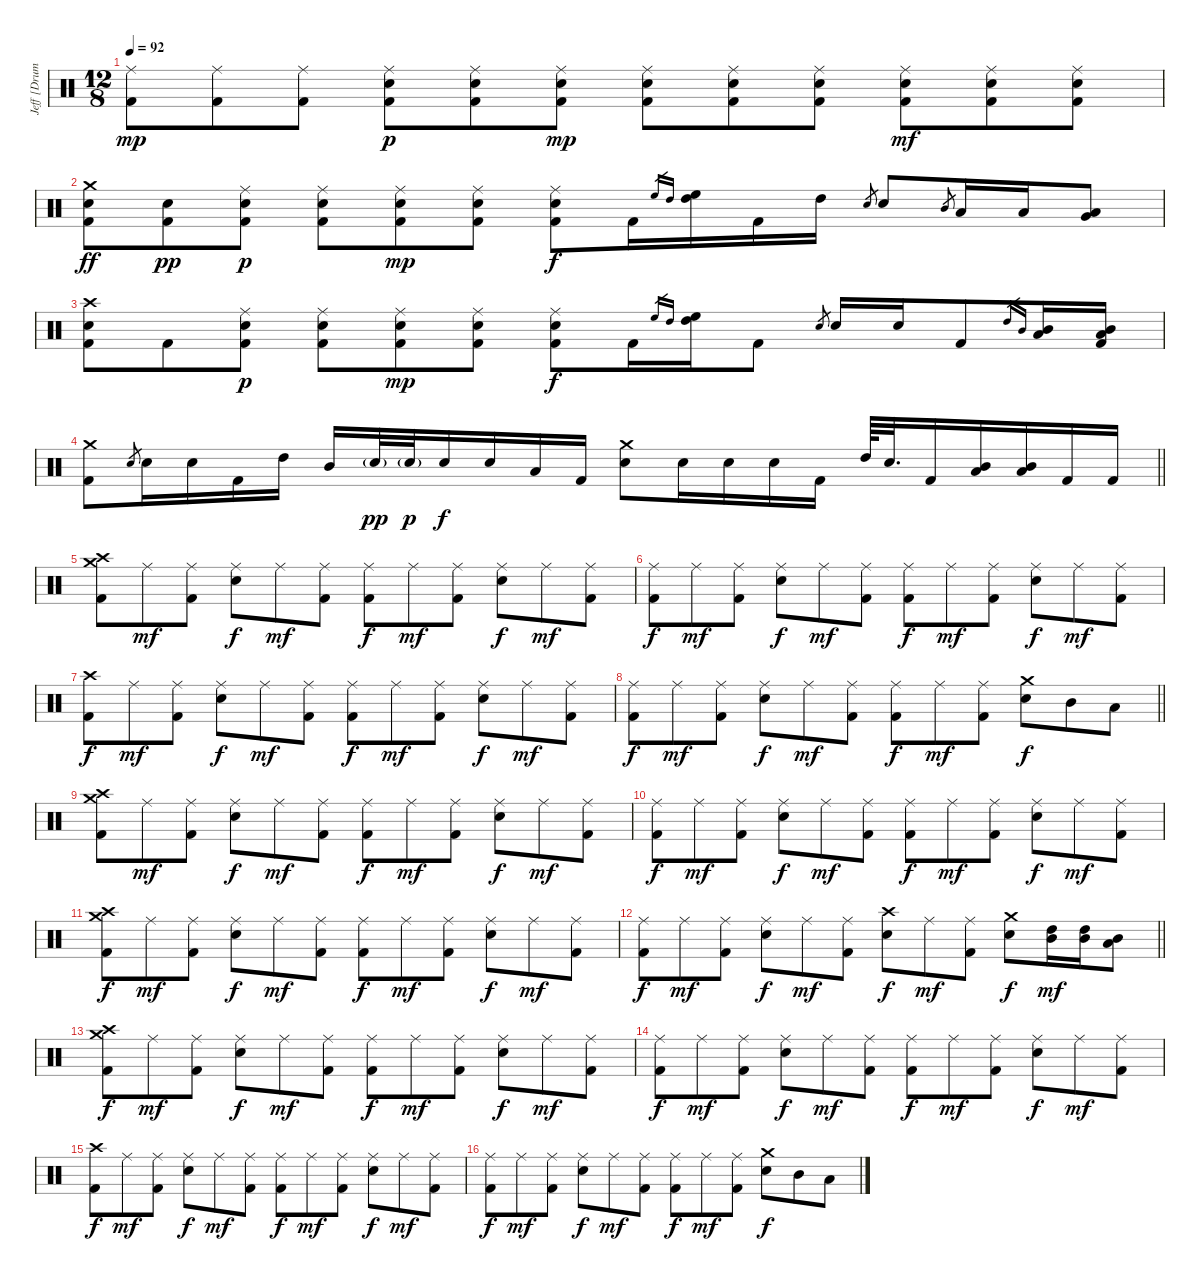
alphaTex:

\track ("Jeff [Drums]" "Jeff [Drum") {instrument percussion}
\staff {score}
\articulation defaults
\ts (12 8)
\tempo 92
\clef neutral
\ks c
("Ride (middle)" "Kick (hit) 2").8{dy mp} ("Ride (middle)" "Kick (hit) 2").8 ("Ride (middle)" "Kick (hit) 2").8 ("Ride (middle)" "Electric Snare (hit)" "Kick (hit) 2").8{dy p} ("Ride (middle)" "Electric Snare (hit)" "Kick (hit) 2").8 ("Ride (middle)" "Electric Snare (hit)" "Kick (hit) 2").8{dy mp} ("Ride (middle)" "Electric Snare (hit)" "Kick (hit) 2").8 ("Ride (middle)" "Electric Snare (hit)" "Kick (hit) 2").8 ("Ride (middle)" "Electric Snare (hit)" "Kick (hit) 2").8 ("Ride (middle)" "Electric Snare (hit)" "Kick (hit) 2").8{dy mf} ("Ride (middle)" "Electric Snare (hit)" "Kick (hit) 2").8 ("Ride (middle)" "Electric Snare (hit)" "Kick (hit) 2").8 |
("Crash medium (hit)" "Electric Snare (hit)" "Kick (hit) 2").8{dy ff} ("Electric Snare (hit)" "Kick (hit) 2").8{dy pp} ("Ride (middle)" "Electric Snare (hit)" "Kick (hit) 2").8{dy p} ("Ride (middle)" "Electric Snare (hit)" "Kick (hit) 2").8 ("Ride (middle)" "Electric Snare (hit)" "Kick (hit) 2").8{dy mp} ("Ride (middle)" "Electric Snare (hit)" "Kick (hit) 2").8 ("Ride (middle)" "Electric Snare (hit)" "Kick (hit) 2").8{dy f} "Kick (hit) 2".16 "High Floor Tom (hit)".16{gr} "High Tom (hit)".16{gr} ("High Floor Tom (hit)" "High Tom (hit)").16 "Kick (hit) 2".16 "High Tom (hit)".16 "Electric Snare (hit)".8{gr} "Electric Snare (hit)".8 "Mid Tom (hit)".8{gr} "Low Tom (hit)".16 "Low Tom (hit)".16 ("Very Low Tom (hit)" "Low Floor Tom (hit)").8 |
("Crash high (hit)" "Electric Snare (hit)" "Kick (hit) 2").8 "Kick (hit) 2".8 ("Ride (middle)" "Electric Snare (hit)" "Kick (hit) 2").8{dy p} ("Ride (middle)" "Electric Snare (hit)" "Kick (hit) 2").8 ("Ride (middle)" "Electric Snare (hit)" "Kick (hit) 2").8{dy mp} ("Ride (middle)" "Electric Snare (hit)" "Kick (hit) 2").8 ("Ride (middle)" "Electric Snare (hit)" "Kick (hit) 2").8{dy f} "Kick (hit) 2".16 "High Floor Tom (hit)".16{gr} "High Tom (hit)".16{gr} ("High Floor Tom (hit)" "High Tom (hit)").16 "Kick (hit) 2".8 "Electric Snare (hit)".8{gr} "Electric Snare (hit)".16 "Electric Snare (hit)".16 "Kick (hit) 2".8 "High Tom (hit)".16{gr} "Mid Tom (hit)".16{gr} ("Mid Tom (hit)" "Low Tom (hit)").16 ("Mid Tom (hit)" "Low Tom (hit)" "Kick (hit) 2").16 |
\barLineRight lightlight
("Crash medium (hit)" "Kick (hit) 2").8 "Electric Snare (hit)".8{gr} "Electric Snare (hit)".16 "Electric Snare (hit)".16 "Kick (hit) 2".16 "High Tom (hit)".16 "Mid Tom (hit)".16 "Electric Snare (hit)"{g}.32{dy pp} "Electric Snare (hit)"{g}.32{dy p} "Electric Snare (hit)".16{dy f} "Electric Snare (hit)".16 "Low Tom (hit)".16 "Kick (hit) 2".16 ("Crash medium (hit)" "Electric Snare (hit)").8 "Electric Snare (hit)".16 "Electric Snare (hit)".16 "Electric Snare (hit)".16 "Kick (hit) 2".16 "High Tom (hit)".64 "Electric Snare (hit)".32{d} "Kick (hit) 2".16 ("Mid Tom (hit)" "Low Tom (hit)").16 ("Mid Tom (hit)" "Low Tom (hit)").16 "Kick (hit) 2".16 "Kick (hit) 2".16 |
("Crash high (hit)" "Crash medium (hit)" "Kick (hit) 2").8 "Ride (middle)".8{dy mf} ("Ride (middle)" "Kick (hit) 2").8 ("Ride (middle)" "Electric Snare (hit)").8{dy f} "Ride (middle)".8{dy mf} ("Ride (middle)" "Kick (hit) 2").8 ("Ride (middle)" "Kick (hit) 2").8{dy f} "Ride (middle)".8{dy mf} ("Ride (middle)" "Kick (hit) 2").8 ("Ride (middle)" "Electric Snare (hit)").8{dy f} "Ride (middle)".8{dy mf} ("Ride (middle)" "Kick (hit) 2").8 |
("Ride (middle)" "Kick (hit) 2").8{dy f} "Ride (middle)".8{dy mf} ("Ride (middle)" "Kick (hit) 2").8 ("Ride (middle)" "Electric Snare (hit)").8{dy f} "Ride (middle)".8{dy mf} ("Ride (middle)" "Kick (hit) 2").8 ("Ride (middle)" "Kick (hit) 2").8{dy f} "Ride (middle)".8{dy mf} ("Ride (middle)" "Kick (hit) 2").8 ("Ride (middle)" "Electric Snare (hit)").8{dy f} "Ride (middle)".8{dy mf} ("Ride (middle)" "Kick (hit) 2").8 |
("Crash high (hit)" "Kick (hit) 2").8{dy f} "Ride (middle)".8{dy mf} ("Ride (middle)" "Kick (hit) 2").8 ("Ride (middle)" "Electric Snare (hit)").8{dy f} "Ride (middle)".8{dy mf} ("Ride (middle)" "Kick (hit) 2").8 ("Ride (middle)" "Kick (hit) 2").8{dy f} "Ride (middle)".8{dy mf} ("Ride (middle)" "Kick (hit) 2").8 ("Ride (middle)" "Electric Snare (hit)").8{dy f} "Ride (middle)".8{dy mf} ("Ride (middle)" "Kick (hit) 2").8 |
\barLineRight lightlight
("Ride (middle)" "Kick (hit) 2").8{dy f} "Ride (middle)".8{dy mf} ("Ride (middle)" "Kick (hit) 2").8 ("Ride (middle)" "Electric Snare (hit)").8{dy f} "Ride (middle)".8{dy mf} ("Ride (middle)" "Kick (hit) 2").8 ("Ride (middle)" "Kick (hit) 2").8{dy f} "Ride (middle)".8{dy mf} ("Ride (middle)" "Kick (hit) 2").8 ("Crash medium (hit)" "Electric Snare (hit)").8{dy f} "Mid Tom (hit)".8 "Low Tom (hit)".8 |
("Crash high (hit)" "Crash medium (hit)" "Kick (hit) 2").8 "Ride (middle)".8{dy mf} ("Ride (middle)" "Kick (hit) 2").8 ("Ride (middle)" "Electric Snare (hit)").8{dy f} "Ride (middle)".8{dy mf} ("Ride (middle)" "Kick (hit) 2").8 ("Ride (middle)" "Kick (hit) 2").8{dy f} "Ride (middle)".8{dy mf} ("Ride (middle)" "Kick (hit) 2").8 ("Ride (middle)" "Electric Snare (hit)").8{dy f} "Ride (middle)".8{dy mf} ("Ride (middle)" "Kick (hit) 2").8 |
("Ride (middle)" "Kick (hit) 2").8{dy f} "Ride (middle)".8{dy mf} ("Ride (middle)" "Kick (hit) 2").8 ("Ride (middle)" "Electric Snare (hit)").8{dy f} "Ride (middle)".8{dy mf} ("Ride (middle)" "Kick (hit) 2").8 ("Ride (middle)" "Kick (hit) 2").8{dy f} "Ride (middle)".8{dy mf} ("Ride (middle)" "Kick (hit) 2").8 ("Ride (middle)" "Electric Snare (hit)").8{dy f} "Ride (middle)".8{dy mf} ("Ride (middle)" "Kick (hit) 2").8 |
("Crash high (hit)" "Crash medium (hit)" "Kick (hit) 2").8{dy f} "Ride (middle)".8{dy mf} ("Ride (middle)" "Kick (hit) 2").8 ("Ride (middle)" "Electric Snare (hit)").8{dy f} "Ride (middle)".8{dy mf} ("Ride (middle)" "Kick (hit) 2").8 ("Ride (middle)" "Kick (hit) 2").8{dy f} "Ride (middle)".8{dy mf} ("Ride (middle)" "Kick (hit) 2").8 ("Ride (middle)" "Electric Snare (hit)").8{dy f} "Ride (middle)".8{dy mf} ("Ride (middle)" "Kick (hit) 2").8 |
\barLineRight lightlight
("Ride (middle)" "Kick (hit) 2").8{dy f} "Ride (middle)".8{dy mf} ("Ride (middle)" "Kick (hit) 2").8 ("Ride (middle)" "Electric Snare (hit)").8{dy f} "Ride (middle)".8{dy mf} ("Ride (middle)" "Kick (hit) 2").8 ("Crash high (hit)" "Electric Snare (hit)").8{dy f} "Ride (middle)".8{dy mf} ("Ride (middle)" "Kick (hit) 2").8 ("Crash medium (hit)" "Electric Snare (hit)").8{dy f} ("High Tom (hit)" "Mid Tom (hit)").16{dy mf} ("High Tom (hit)" "Mid Tom (hit)").16 ("Mid Tom (hit)" "Low Tom (hit)").8 |
("Crash high (hit)" "Crash medium (hit)" "Kick (hit) 2").8{dy f} "Ride (middle)".8{dy mf} ("Ride (middle)" "Kick (hit) 2").8 ("Ride (middle)" "Electric Snare (hit)").8{dy f} "Ride (middle)".8{dy mf} ("Ride (middle)" "Kick (hit) 2").8 ("Ride (middle)" "Kick (hit) 2").8{dy f} "Ride (middle)".8{dy mf} ("Ride (middle)" "Kick (hit) 2").8 ("Ride (middle)" "Electric Snare (hit)").8{dy f} "Ride (middle)".8{dy mf} ("Ride (middle)" "Kick (hit) 2").8 |
("Ride (middle)" "Kick (hit) 2").8{dy f} "Ride (middle)".8{dy mf} ("Ride (middle)" "Kick (hit) 2").8 ("Ride (middle)" "Electric Snare (hit)").8{dy f} "Ride (middle)".8{dy mf} ("Ride (middle)" "Kick (hit) 2").8 ("Ride (middle)" "Kick (hit) 2").8{dy f} "Ride (middle)".8{dy mf} ("Ride (middle)" "Kick (hit) 2").8 ("Ride (middle)" "Electric Snare (hit)").8{dy f} "Ride (middle)".8{dy mf} ("Ride (middle)" "Kick (hit) 2").8 |
("Crash high (hit)" "Kick (hit) 2").8{dy f} "Ride (middle)".8{dy mf} ("Ride (middle)" "Kick (hit) 2").8 ("Ride (middle)" "Electric Snare (hit)").8{dy f} "Ride (middle)".8{dy mf} ("Ride (middle)" "Kick (hit) 2").8 ("Ride (middle)" "Kick (hit) 2").8{dy f} "Ride (middle)".8{dy mf} ("Ride (middle)" "Kick (hit) 2").8 ("Ride (middle)" "Electric Snare (hit)").8{dy f} "Ride (middle)".8{dy mf} ("Ride (middle)" "Kick (hit) 2").8 |
("Ride (middle)" "Kick (hit) 2").8{dy f} "Ride (middle)".8{dy mf} ("Ride (middle)" "Kick (hit) 2").8 ("Ride (middle)" "Electric Snare (hit)").8{dy f} "Ride (middle)".8{dy mf} ("Ride (middle)" "Kick (hit) 2").8 ("Ride (middle)" "Kick (hit) 2").8{dy f} "Ride (middle)".8{dy mf} ("Ride (middle)" "Kick (hit) 2").8 ("Crash medium (hit)" "Electric Snare (hit)").8{dy f} "Mid Tom (hit)".8 "Low Tom (hit)".8
